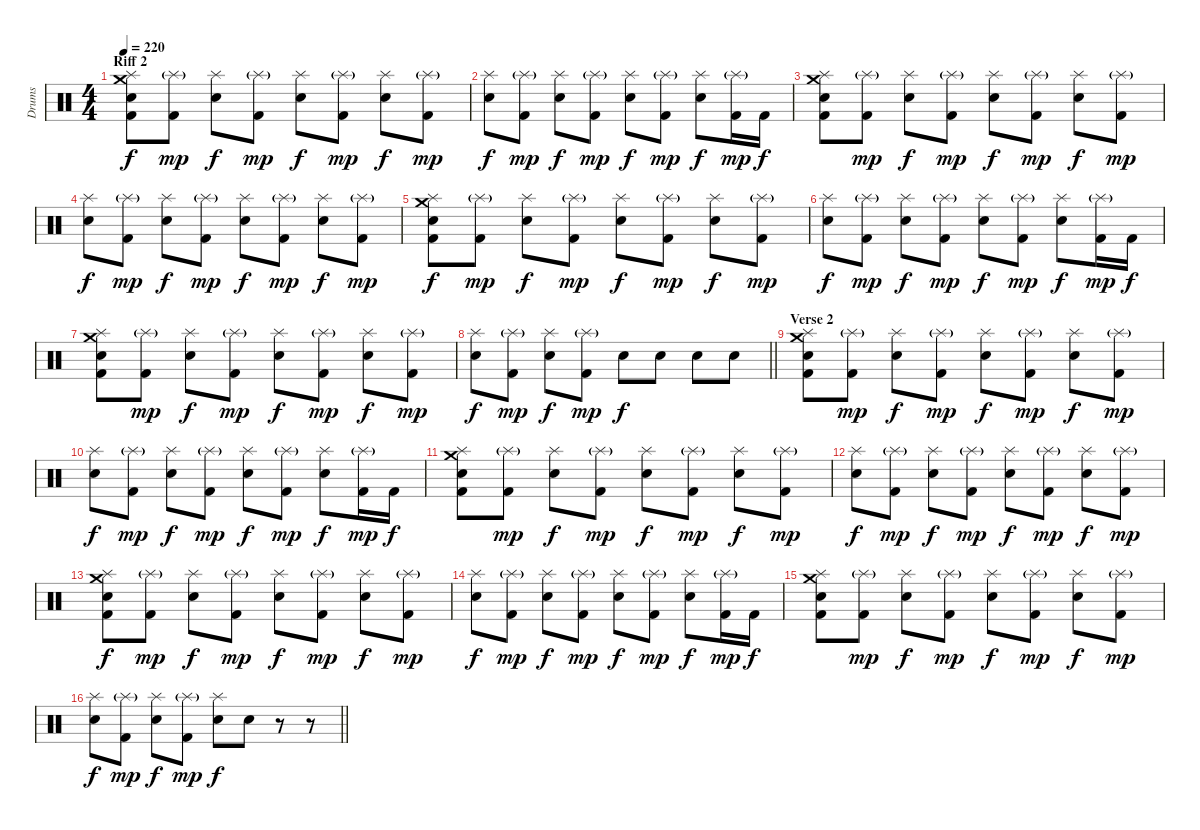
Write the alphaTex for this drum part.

\track ("Drums" "Drums") {instrument percussion}
\staff {score}
\articulation defaults
\ts (4 4)
\section ("" "Riff 2")
\tempo 220
\clef neutral
\ks c
("Crash medium (hit)" "Splash (hit)" "Electric Snare (hit)" "Kick (hit) 2").8{dy f} ("Splash (hit)"{g} "Kick (hit) 2").8{dy mp} ("Splash (hit)" "Electric Snare (hit)").8{dy f} ("Splash (hit)"{g} "Kick (hit) 2").8{dy mp} ("Splash (hit)" "Electric Snare (hit)").8{dy f} ("Splash (hit)"{g} "Kick (hit) 2").8{dy mp} ("Splash (hit)" "Electric Snare (hit)").8{dy f} ("Splash (hit)"{g} "Kick (hit) 2").8{dy mp} |
("Splash (hit)" "Electric Snare (hit)").8{dy f} ("Splash (hit)"{g} "Kick (hit) 2").8{dy mp} ("Splash (hit)" "Electric Snare (hit)").8{dy f} ("Splash (hit)"{g} "Kick (hit) 2").8{dy mp} ("Splash (hit)" "Electric Snare (hit)").8{dy f} ("Splash (hit)"{g} "Kick (hit) 2").8{dy mp} ("Splash (hit)" "Electric Snare (hit)").8{dy f} ("Splash (hit)"{g} "Kick (hit) 2").16{dy mp} "Kick (hit) 2".16{dy f} |
("Crash medium (hit)" "Splash (hit)" "Electric Snare (hit)" "Kick (hit) 2").8 ("Splash (hit)"{g} "Kick (hit) 2").8{dy mp} ("Splash (hit)" "Electric Snare (hit)").8{dy f} ("Splash (hit)"{g} "Kick (hit) 2").8{dy mp} ("Splash (hit)" "Electric Snare (hit)").8{dy f} ("Splash (hit)"{g} "Kick (hit) 2").8{dy mp} ("Splash (hit)" "Electric Snare (hit)").8{dy f} ("Splash (hit)"{g} "Kick (hit) 2").8{dy mp} |
("Splash (hit)" "Electric Snare (hit)").8{dy f} ("Splash (hit)"{g} "Kick (hit) 2").8{dy mp} ("Splash (hit)" "Electric Snare (hit)").8{dy f} ("Splash (hit)"{g} "Kick (hit) 2").8{dy mp} ("Splash (hit)" "Electric Snare (hit)").8{dy f} ("Splash (hit)"{g} "Kick (hit) 2").8{dy mp} ("Splash (hit)" "Electric Snare (hit)").8{dy f} ("Splash (hit)"{g} "Kick (hit) 2").8{dy mp} |
("Crash medium (hit)" "Splash (hit)" "Electric Snare (hit)" "Kick (hit) 2").8{dy f} ("Splash (hit)"{g} "Kick (hit) 2").8{dy mp} ("Splash (hit)" "Electric Snare (hit)").8{dy f} ("Splash (hit)"{g} "Kick (hit) 2").8{dy mp} ("Splash (hit)" "Electric Snare (hit)").8{dy f} ("Splash (hit)"{g} "Kick (hit) 2").8{dy mp} ("Splash (hit)" "Electric Snare (hit)").8{dy f} ("Splash (hit)"{g} "Kick (hit) 2").8{dy mp} |
("Splash (hit)" "Electric Snare (hit)").8{dy f} ("Splash (hit)"{g} "Kick (hit) 2").8{dy mp} ("Splash (hit)" "Electric Snare (hit)").8{dy f} ("Splash (hit)"{g} "Kick (hit) 2").8{dy mp} ("Splash (hit)" "Electric Snare (hit)").8{dy f} ("Splash (hit)"{g} "Kick (hit) 2").8{dy mp} ("Splash (hit)" "Electric Snare (hit)").8{dy f} ("Splash (hit)"{g} "Kick (hit) 2").16{dy mp} "Kick (hit) 2".16{dy f} |
("Crash medium (hit)" "Splash (hit)" "Electric Snare (hit)" "Kick (hit) 2").8 ("Splash (hit)"{g} "Kick (hit) 2").8{dy mp} ("Splash (hit)" "Electric Snare (hit)").8{dy f} ("Splash (hit)"{g} "Kick (hit) 2").8{dy mp} ("Splash (hit)" "Electric Snare (hit)").8{dy f} ("Splash (hit)"{g} "Kick (hit) 2").8{dy mp} ("Splash (hit)" "Electric Snare (hit)").8{dy f} ("Splash (hit)"{g} "Kick (hit) 2").8{dy mp} |
\barLineRight lightlight
("Splash (hit)" "Electric Snare (hit)").8{dy f} ("Splash (hit)"{g} "Kick (hit) 2").8{dy mp} ("Splash (hit)" "Electric Snare (hit)").8{dy f} ("Splash (hit)"{g} "Kick (hit) 2").8{dy mp} "Electric Snare (hit)".8{dy f} "Electric Snare (hit)".8 "Electric Snare (hit)".8 "Electric Snare (hit)".8 |
\section ("" "Verse 2")
("Crash medium (hit)" "Splash (hit)" "Electric Snare (hit)" "Kick (hit) 2").8 ("Splash (hit)"{g} "Kick (hit) 2").8{dy mp} ("Splash (hit)" "Electric Snare (hit)").8{dy f} ("Splash (hit)"{g} "Kick (hit) 2").8{dy mp} ("Splash (hit)" "Electric Snare (hit)").8{dy f} ("Splash (hit)"{g} "Kick (hit) 2").8{dy mp} ("Splash (hit)" "Electric Snare (hit)").8{dy f} ("Splash (hit)"{g} "Kick (hit) 2").8{dy mp} |
("Splash (hit)" "Electric Snare (hit)").8{dy f} ("Splash (hit)"{g} "Kick (hit) 2").8{dy mp} ("Splash (hit)" "Electric Snare (hit)").8{dy f} ("Splash (hit)"{g} "Kick (hit) 2").8{dy mp} ("Splash (hit)" "Electric Snare (hit)").8{dy f} ("Splash (hit)"{g} "Kick (hit) 2").8{dy mp} ("Splash (hit)" "Electric Snare (hit)").8{dy f} ("Splash (hit)"{g} "Kick (hit) 2").16{dy mp} "Kick (hit) 2".16{dy f} |
("Crash medium (hit)" "Splash (hit)" "Electric Snare (hit)" "Kick (hit) 2").8 ("Splash (hit)"{g} "Kick (hit) 2").8{dy mp} ("Splash (hit)" "Electric Snare (hit)").8{dy f} ("Splash (hit)"{g} "Kick (hit) 2").8{dy mp} ("Splash (hit)" "Electric Snare (hit)").8{dy f} ("Splash (hit)"{g} "Kick (hit) 2").8{dy mp} ("Splash (hit)" "Electric Snare (hit)").8{dy f} ("Splash (hit)"{g} "Kick (hit) 2").8{dy mp} |
("Splash (hit)" "Electric Snare (hit)").8{dy f} ("Splash (hit)"{g} "Kick (hit) 2").8{dy mp} ("Splash (hit)" "Electric Snare (hit)").8{dy f} ("Splash (hit)"{g} "Kick (hit) 2").8{dy mp} ("Splash (hit)" "Electric Snare (hit)").8{dy f} ("Splash (hit)"{g} "Kick (hit) 2").8{dy mp} ("Splash (hit)" "Electric Snare (hit)").8{dy f} ("Splash (hit)"{g} "Kick (hit) 2").8{dy mp} |
("Crash medium (hit)" "Splash (hit)" "Electric Snare (hit)" "Kick (hit) 2").8{dy f} ("Splash (hit)"{g} "Kick (hit) 2").8{dy mp} ("Splash (hit)" "Electric Snare (hit)").8{dy f} ("Splash (hit)"{g} "Kick (hit) 2").8{dy mp} ("Splash (hit)" "Electric Snare (hit)").8{dy f} ("Splash (hit)"{g} "Kick (hit) 2").8{dy mp} ("Splash (hit)" "Electric Snare (hit)").8{dy f} ("Splash (hit)"{g} "Kick (hit) 2").8{dy mp} |
("Splash (hit)" "Electric Snare (hit)").8{dy f} ("Splash (hit)"{g} "Kick (hit) 2").8{dy mp} ("Splash (hit)" "Electric Snare (hit)").8{dy f} ("Splash (hit)"{g} "Kick (hit) 2").8{dy mp} ("Splash (hit)" "Electric Snare (hit)").8{dy f} ("Splash (hit)"{g} "Kick (hit) 2").8{dy mp} ("Splash (hit)" "Electric Snare (hit)").8{dy f} ("Splash (hit)"{g} "Kick (hit) 2").16{dy mp} "Kick (hit) 2".16{dy f} |
("Crash medium (hit)" "Splash (hit)" "Electric Snare (hit)" "Kick (hit) 2").8 ("Splash (hit)"{g} "Kick (hit) 2").8{dy mp} ("Splash (hit)" "Electric Snare (hit)").8{dy f} ("Splash (hit)"{g} "Kick (hit) 2").8{dy mp} ("Splash (hit)" "Electric Snare (hit)").8{dy f} ("Splash (hit)"{g} "Kick (hit) 2").8{dy mp} ("Splash (hit)" "Electric Snare (hit)").8{dy f} ("Splash (hit)"{g} "Kick (hit) 2").8{dy mp} |
\barLineRight lightlight
("Splash (hit)" "Electric Snare (hit)").8{dy f} ("Splash (hit)"{g} "Kick (hit) 2").8{dy mp} ("Splash (hit)" "Electric Snare (hit)").8{dy f} ("Splash (hit)"{g} "Kick (hit) 2").8{dy mp} ("Splash (hit)" "Electric Snare (hit)").8{dy f} "Electric Snare (hit)".8 r.8 r.8
